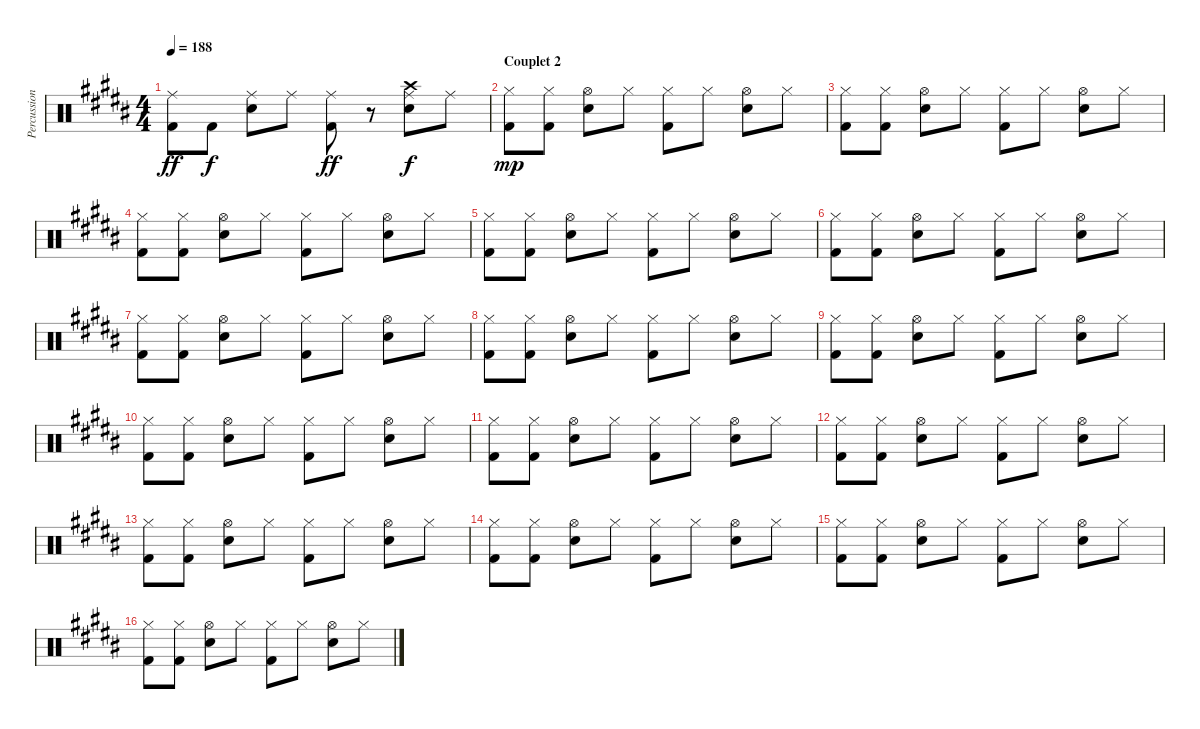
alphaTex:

\track ("Percussions" "Percussion") {instrument percussion}
\staff {score}
\articulation defaults
\ts (4 4)
\tempo 188
\clef neutral
\ks b
("Ride (middle)" "Kick (hit) 2").8{dy ff} "Kick (hit) 2".8{dy f} ("Ride (middle)" "Snare (hit) 2").8 "Ride (middle)".8 ("Ride (middle)" "Kick (hit) 2").8{dy ff} r.8 ("Crash high (hit)" "Ride (middle)" "Snare (hit) 2").8{dy f} "Ride (middle)".8 |
\section ("" "Couplet 2")
("Hi-Hat (closed)" "Kick (hit) 2").8{dy mp} ("Hi-Hat (closed)" "Kick (hit) 2").8 ("Hi-Hat (open)" "Snare (hit) 2").8 "Hi-Hat (closed)".8 ("Hi-Hat (closed)" "Kick (hit) 2").8 "Hi-Hat (closed)".8 ("Hi-Hat (open)" "Snare (hit) 2").8 "Hi-Hat (closed)".8 |
("Hi-Hat (closed)" "Kick (hit) 2").8 ("Hi-Hat (closed)" "Kick (hit) 2").8 ("Hi-Hat (open)" "Snare (hit) 2").8 "Hi-Hat (closed)".8 ("Hi-Hat (closed)" "Kick (hit) 2").8 "Hi-Hat (closed)".8 ("Hi-Hat (open)" "Snare (hit) 2").8 "Hi-Hat (closed)".8 |
("Hi-Hat (closed)" "Kick (hit) 2").8 ("Hi-Hat (closed)" "Kick (hit) 2").8 ("Hi-Hat (open)" "Snare (hit) 2").8 "Hi-Hat (closed)".8 ("Hi-Hat (closed)" "Kick (hit) 2").8 "Hi-Hat (closed)".8 ("Hi-Hat (open)" "Snare (hit) 2").8 "Hi-Hat (closed)".8 |
("Hi-Hat (closed)" "Kick (hit) 2").8 ("Hi-Hat (closed)" "Kick (hit) 2").8 ("Hi-Hat (open)" "Snare (hit) 2").8 "Hi-Hat (closed)".8 ("Hi-Hat (closed)" "Kick (hit) 2").8 "Hi-Hat (closed)".8 ("Hi-Hat (open)" "Snare (hit) 2").8 "Hi-Hat (closed)".8 |
("Hi-Hat (closed)" "Kick (hit) 2").8 ("Hi-Hat (closed)" "Kick (hit) 2").8 ("Hi-Hat (open)" "Snare (hit) 2").8 "Hi-Hat (closed)".8 ("Hi-Hat (closed)" "Kick (hit) 2").8 "Hi-Hat (closed)".8 ("Hi-Hat (open)" "Snare (hit) 2").8 "Hi-Hat (closed)".8 |
("Hi-Hat (closed)" "Kick (hit) 2").8 ("Hi-Hat (closed)" "Kick (hit) 2").8 ("Hi-Hat (open)" "Snare (hit) 2").8 "Hi-Hat (closed)".8 ("Hi-Hat (closed)" "Kick (hit) 2").8 "Hi-Hat (closed)".8 ("Hi-Hat (open)" "Snare (hit) 2").8 "Hi-Hat (closed)".8 |
("Hi-Hat (closed)" "Kick (hit) 2").8 ("Hi-Hat (closed)" "Kick (hit) 2").8 ("Hi-Hat (open)" "Snare (hit) 2").8 "Hi-Hat (closed)".8 ("Hi-Hat (closed)" "Kick (hit) 2").8 "Hi-Hat (closed)".8 ("Hi-Hat (open)" "Snare (hit) 2").8 "Hi-Hat (closed)".8 |
("Hi-Hat (closed)" "Kick (hit) 2").8 ("Hi-Hat (closed)" "Kick (hit) 2").8 ("Hi-Hat (open)" "Snare (hit) 2").8 "Hi-Hat (closed)".8 ("Hi-Hat (closed)" "Kick (hit) 2").8 "Hi-Hat (closed)".8 ("Hi-Hat (open)" "Snare (hit) 2").8 "Hi-Hat (closed)".8 |
("Hi-Hat (closed)" "Kick (hit) 2").8 ("Hi-Hat (closed)" "Kick (hit) 2").8 ("Hi-Hat (open)" "Snare (hit) 2").8 "Hi-Hat (closed)".8 ("Hi-Hat (closed)" "Kick (hit) 2").8 "Hi-Hat (closed)".8 ("Hi-Hat (open)" "Snare (hit) 2").8 "Hi-Hat (closed)".8 |
("Hi-Hat (closed)" "Kick (hit) 2").8 ("Hi-Hat (closed)" "Kick (hit) 2").8 ("Hi-Hat (open)" "Snare (hit) 2").8 "Hi-Hat (closed)".8 ("Hi-Hat (closed)" "Kick (hit) 2").8 "Hi-Hat (closed)".8 ("Hi-Hat (open)" "Snare (hit) 2").8 "Hi-Hat (closed)".8 |
("Hi-Hat (closed)" "Kick (hit) 2").8 ("Hi-Hat (closed)" "Kick (hit) 2").8 ("Hi-Hat (open)" "Snare (hit) 2").8 "Hi-Hat (closed)".8 ("Hi-Hat (closed)" "Kick (hit) 2").8 "Hi-Hat (closed)".8 ("Hi-Hat (open)" "Snare (hit) 2").8 "Hi-Hat (closed)".8 |
("Hi-Hat (closed)" "Kick (hit) 2").8 ("Hi-Hat (closed)" "Kick (hit) 2").8 ("Hi-Hat (open)" "Snare (hit) 2").8 "Hi-Hat (closed)".8 ("Hi-Hat (closed)" "Kick (hit) 2").8 "Hi-Hat (closed)".8 ("Hi-Hat (open)" "Snare (hit) 2").8 "Hi-Hat (closed)".8 |
("Hi-Hat (closed)" "Kick (hit) 2").8 ("Hi-Hat (closed)" "Kick (hit) 2").8 ("Hi-Hat (open)" "Snare (hit) 2").8 "Hi-Hat (closed)".8 ("Hi-Hat (closed)" "Kick (hit) 2").8 "Hi-Hat (closed)".8 ("Hi-Hat (open)" "Snare (hit) 2").8 "Hi-Hat (closed)".8 |
("Hi-Hat (closed)" "Kick (hit) 2").8 ("Hi-Hat (closed)" "Kick (hit) 2").8 ("Hi-Hat (open)" "Snare (hit) 2").8 "Hi-Hat (closed)".8 ("Hi-Hat (closed)" "Kick (hit) 2").8 "Hi-Hat (closed)".8 ("Hi-Hat (open)" "Snare (hit) 2").8 "Hi-Hat (closed)".8 |
("Hi-Hat (closed)" "Kick (hit) 2").8 ("Hi-Hat (closed)" "Kick (hit) 2").8 ("Hi-Hat (open)" "Snare (hit) 2").8 "Hi-Hat (closed)".8 ("Hi-Hat (closed)" "Kick (hit) 2").8 "Hi-Hat (closed)".8 ("Hi-Hat (open)" "Snare (hit) 2").8 "Hi-Hat (closed)".8
